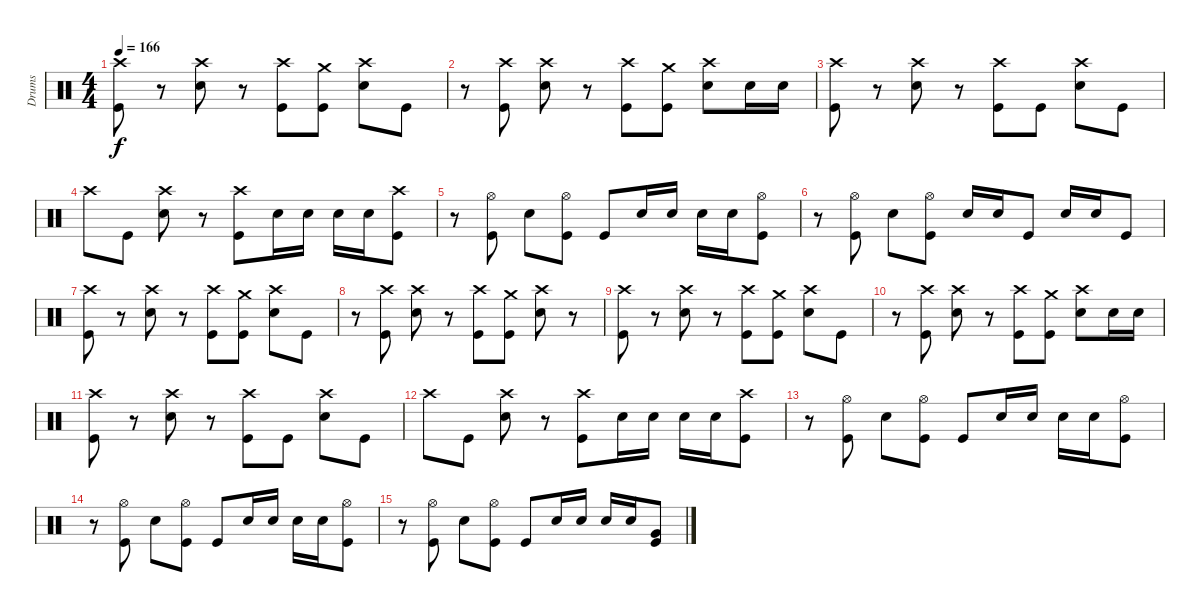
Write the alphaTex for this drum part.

\track ("Drums" "Drums") {instrument percussion}
\staff {score}
\articulation defaults
\ts (4 4)
\tempo 166
\clef neutral
\ks c
("Crash high (hit)" "Kick (hit)").8{dy f} r.8 ("Crash high (hit)" "Snare (hit) 2").8 r.8 ("Crash high (hit)" "Kick (hit)").8 ("Crash medium (hit)" "Kick (hit)").8 ("Crash high (hit)" "Snare (hit) 2").8 "Kick (hit)".8 |
r.8 ("Crash high (hit)" "Kick (hit)").8 ("Crash high (hit)" "Snare (hit) 2").8 r.8 ("Crash high (hit)" "Kick (hit)").8 ("Crash medium (hit)" "Kick (hit)").8 ("Crash high (hit)" "Snare (hit) 2").8 "Snare (hit) 2".16 "Snare (hit) 2".16 |
("Crash high (hit)" "Kick (hit)").8 r.8 ("Crash high (hit)" "Snare (hit) 2").8 r.8 ("Crash high (hit)" "Kick (hit)").8 "Kick (hit)".8 ("Crash high (hit)" "Snare (hit) 2").8 "Kick (hit)".8 |
"Crash high (hit)".8 "Kick (hit)".8 ("Crash high (hit)" "Snare (hit) 2").8 r.8 ("Crash high (hit)" "Kick (hit)").8 "Snare (hit) 2".16 "Snare (hit) 2".16 "Snare (hit) 2".16 "Snare (hit) 2".16 ("Crash high (hit)" "Kick (hit)").8 |
r.8 ("Hi-Hat (open)" "Kick (hit)").8 "Snare (hit) 2".8 ("Hi-Hat (open)" "Kick (hit)").8 "Kick (hit)".8 "Snare (hit) 2".16 "Snare (hit) 2".16 "Snare (hit) 2".16 "Snare (hit) 2".16 ("Hi-Hat (open)" "Kick (hit)").8 |
r.8 ("Hi-Hat (open)" "Kick (hit)").8 "Snare (hit) 2".8 ("Hi-Hat (open)" "Kick (hit)").8 "Snare (hit) 2".16 "Snare (hit) 2".16 "Kick (hit)".8 "Snare (hit) 2".16 "Snare (hit) 2".16 "Kick (hit)".8 |
("Crash high (hit)" "Kick (hit)").8 r.8 ("Crash high (hit)" "Snare (hit) 2").8 r.8 ("Crash high (hit)" "Kick (hit)").8 ("Crash medium (hit)" "Kick (hit)").8 ("Crash high (hit)" "Snare (hit) 2").8 "Kick (hit)".8 |
r.8 ("Crash high (hit)" "Kick (hit)").8 ("Crash high (hit)" "Snare (hit) 2").8 r.8 ("Crash high (hit)" "Kick (hit)").8 ("Crash medium (hit)" "Kick (hit)").8 ("Crash high (hit)" "Snare (hit) 2").8 r.8 |
("Crash high (hit)" "Kick (hit)").8 r.8 ("Crash high (hit)" "Snare (hit) 2").8 r.8 ("Crash high (hit)" "Kick (hit)").8 ("Crash medium (hit)" "Kick (hit)").8 ("Crash high (hit)" "Snare (hit) 2").8 "Kick (hit)".8 |
r.8 ("Crash high (hit)" "Kick (hit)").8 ("Crash high (hit)" "Snare (hit) 2").8 r.8 ("Crash high (hit)" "Kick (hit)").8 ("Crash medium (hit)" "Kick (hit)").8 ("Crash high (hit)" "Snare (hit) 2").8 "Snare (hit) 2".16 "Snare (hit) 2".16 |
("Crash high (hit)" "Kick (hit)").8 r.8 ("Crash high (hit)" "Snare (hit) 2").8 r.8 ("Crash high (hit)" "Kick (hit)").8 "Kick (hit)".8 ("Crash high (hit)" "Snare (hit) 2").8 "Kick (hit)".8 |
"Crash high (hit)".8 "Kick (hit)".8 ("Crash high (hit)" "Snare (hit) 2").8 r.8 ("Crash high (hit)" "Kick (hit)").8 "Snare (hit) 2".16 "Snare (hit) 2".16 "Snare (hit) 2".16 "Snare (hit) 2".16 ("Crash high (hit)" "Kick (hit)").8 |
r.8 ("Hi-Hat (open)" "Kick (hit)").8 "Snare (hit) 2".8 ("Hi-Hat (open)" "Kick (hit)").8 "Kick (hit)".8 "Snare (hit) 2".16 "Snare (hit) 2".16 "Snare (hit) 2".16 "Snare (hit) 2".16 ("Hi-Hat (open)" "Kick (hit)").8 |
r.8 ("Hi-Hat (open)" "Kick (hit)").8 "Snare (hit) 2".8 ("Hi-Hat (open)" "Kick (hit)").8 "Kick (hit)".8 "Snare (hit) 2".16 "Snare (hit) 2".16 "Snare (hit) 2".16 "Snare (hit) 2".16 ("Hi-Hat (open)" "Kick (hit)").8 |
r.8 ("Hi-Hat (open)" "Kick (hit)").8 "Snare (hit) 2".8 ("Hi-Hat (open)" "Kick (hit)").8 "Kick (hit)".8 "Snare (hit) 2".16 "Snare (hit) 2".16 "Snare (hit) 2".16 "Snare (hit) 2".16 ("Very Low Tom (hit)" "Kick (hit)").8
